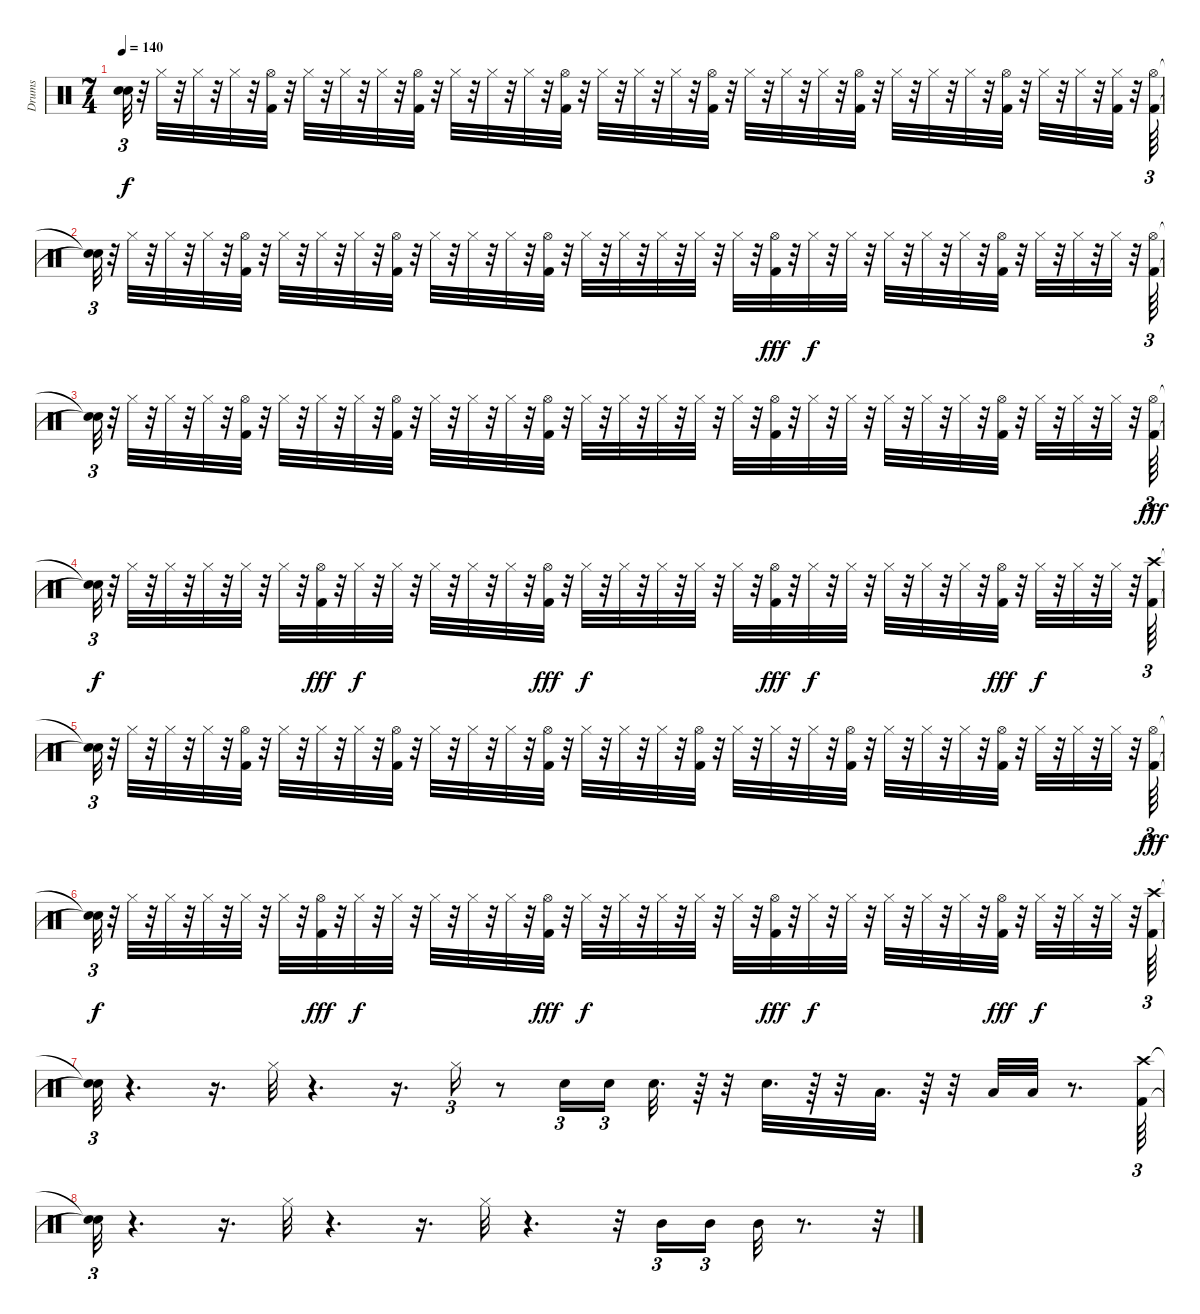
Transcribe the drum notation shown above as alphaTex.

\track ("Drums" "Drums") {instrument percussion}
\staff {score}
\articulation defaults
\ts (7 4)
\tempo 140
\clef neutral
\ks c
("Snare (hit)"{t} "Snare (hit)"{t}).32{tu (3 2) dy f} r.32 "Hi-Hat (closed)".32 r.32 "Hi-Hat (closed)".32 r.32 "Hi-Hat (closed)".32 r.32 ("Kick (hit) 2" "Hi-Hat (open)").32 r.32 "Hi-Hat (closed)".32 r.32 "Hi-Hat (closed)".32 r.32 "Hi-Hat (closed)".32 r.32 ("Hi-Hat (open)" "Kick (hit) 2").32 r.32 "Hi-Hat (closed)".32 r.32 "Hi-Hat (closed)".32 r.32 "Hi-Hat (closed)".32 r.32 ("Kick (hit) 2" "Hi-Hat (open)").32 r.32 "Hi-Hat (closed)".32 r.32 "Hi-Hat (closed)".32 r.32 "Hi-Hat (closed)".32 r.32 ("Kick (hit) 2" "Hi-Hat (open)").32 r.32 "Hi-Hat (closed)".32 r.32 "Hi-Hat (closed)".32 r.32 "Hi-Hat (closed)".32 r.32 ("Kick (hit) 2" "Hi-Hat (open)").32 r.32 "Hi-Hat (closed)".32 r.32 "Hi-Hat (closed)".32 r.32 "Hi-Hat (closed)".32 r.32 ("Kick (hit) 2" "Hi-Hat (open)").32 r.32 "Hi-Hat (closed)".32 r.32 "Hi-Hat (closed)".32 r.32 ("Kick (hit) 2" "Hi-Hat (closed)").32 r.32 ("Kick (hit) 2" "Hi-Hat (open)").64{tu (3 2)} |
("Snare (hit)"{t} "Snare (hit)"{t}).32{tu (3 2)} r.32 "Hi-Hat (closed)".32 r.32 "Hi-Hat (closed)".32 r.32 "Hi-Hat (closed)".32 r.32 ("Kick (hit) 2" "Hi-Hat (open)").32 r.32 "Hi-Hat (closed)".32 r.32 "Hi-Hat (closed)".32 r.32 "Hi-Hat (closed)".32 r.32 ("Kick (hit) 2" "Hi-Hat (open)").32 r.32 "Hi-Hat (closed)".32 r.32 "Hi-Hat (closed)".32 r.32 "Hi-Hat (closed)".32 r.32 ("Kick (hit) 2" "Hi-Hat (open)").32 r.32 "Hi-Hat (closed)".32 r.32 "Hi-Hat (closed)".32 r.32 "Hi-Hat (closed)".32 r.32 "Hi-Hat (closed)".32 r.32 "Hi-Hat (closed)".32 r.32 ("Hi-Hat (open)" "Kick (hit) 2").32{dy fff} r.32 "Hi-Hat (closed)".32{dy f} r.32 "Hi-Hat (closed)".32 r.32 "Hi-Hat (closed)".32 r.32 "Hi-Hat (closed)".32 r.32 "Hi-Hat (closed)".32 r.32 ("Kick (hit) 2" "Hi-Hat (open)").32 r.32 "Hi-Hat (closed)".32 r.32 "Hi-Hat (closed)".32 r.32 "Hi-Hat (closed)".32 r.32 ("Kick (hit) 2" "Hi-Hat (open)").64{tu (3 2)} |
("Snare (hit)"{t} "Snare (hit)"{t}).32{tu (3 2)} r.32 "Hi-Hat (closed)".32 r.32 "Hi-Hat (closed)".32 r.32 "Hi-Hat (closed)".32 r.32 ("Kick (hit) 2" "Hi-Hat (open)").32 r.32 "Hi-Hat (closed)".32 r.32 "Hi-Hat (closed)".32 r.32 "Hi-Hat (closed)".32 r.32 ("Kick (hit) 2" "Hi-Hat (open)").32 r.32 "Hi-Hat (closed)".32 r.32 "Hi-Hat (closed)".32 r.32 "Hi-Hat (closed)".32 r.32 ("Kick (hit) 2" "Hi-Hat (open)").32 r.32 "Hi-Hat (closed)".32 r.32 "Hi-Hat (closed)".32 r.32 "Hi-Hat (closed)".32 r.32 "Hi-Hat (closed)".32 r.32 "Hi-Hat (closed)".32 r.32 ("Hi-Hat (open)" "Kick (hit) 2").32 r.32 "Hi-Hat (closed)".32 r.32 "Hi-Hat (closed)".32 r.32 "Hi-Hat (closed)".32 r.32 "Hi-Hat (closed)".32 r.32 "Hi-Hat (closed)".32 r.32 ("Kick (hit) 2" "Hi-Hat (open)").32 r.32 "Hi-Hat (closed)".32 r.32 "Hi-Hat (closed)".32 r.32 "Hi-Hat (closed)".32 r.32 ("Kick (hit) 2" "Hi-Hat (open)").64{tu (3 2) dy fff} |
("Snare (hit)"{t} "Snare (hit)"{t}).32{tu (3 2) dy f} r.32 "Hi-Hat (closed)".32 r.32 "Hi-Hat (closed)".32 r.32 "Hi-Hat (closed)".32 r.32 "Hi-Hat (closed)".32 r.32 "Hi-Hat (closed)".32 r.32 ("Kick (hit) 2" "Hi-Hat (open)").32{dy fff} r.32 "Hi-Hat (closed)".32{dy f} r.32 "Hi-Hat (closed)".32 r.32 "Hi-Hat (closed)".32 r.32 "Hi-Hat (closed)".32 r.32 "Hi-Hat (closed)".32 r.32 ("Hi-Hat (open)" "Kick (hit) 2").32{dy fff} r.32 "Hi-Hat (closed)".32{dy f} r.32 "Hi-Hat (closed)".32 r.32 "Hi-Hat (closed)".32 r.32 "Hi-Hat (closed)".32 r.32 "Hi-Hat (closed)".32 r.32 ("Kick (hit) 2" "Hi-Hat (open)").32{dy fff} r.32 "Hi-Hat (closed)".32{dy f} r.32 "Hi-Hat (closed)".32 r.32 "Hi-Hat (closed)".32 r.32 "Hi-Hat (closed)".32 r.32 "Hi-Hat (closed)".32 r.32 ("Kick (hit) 2" "Hi-Hat (open)").32{dy fff} r.32 "Hi-Hat (closed)".32{dy f} r.32 "Hi-Hat (closed)".32 r.32 "Hi-Hat (closed)".32 r.32 ("Kick (hit) 2" "Crash high (hit)").64{tu (3 2)} |
("Snare (hit)"{t} "Snare (hit)"{t}).32{tu (3 2)} r.32 "Hi-Hat (closed)".32 r.32 "Hi-Hat (closed)".32 r.32 "Hi-Hat (closed)".32 r.32 ("Hi-Hat (open)" "Kick (hit) 2").32 r.32 "Hi-Hat (closed)".32 r.32 "Hi-Hat (closed)".32 r.32 "Hi-Hat (closed)".32 r.32 ("Hi-Hat (open)" "Kick (hit) 2").32 r.32 "Hi-Hat (closed)".32 r.32 "Hi-Hat (closed)".32 r.32 "Hi-Hat (closed)".32 r.32 ("Kick (hit) 2" "Hi-Hat (open)").32 r.32 "Hi-Hat (closed)".32 r.32 "Hi-Hat (closed)".32 r.32 "Hi-Hat (closed)".32 r.32 ("Kick (hit) 2" "Hi-Hat (open)").32 r.32 "Hi-Hat (closed)".32 r.32 "Hi-Hat (closed)".32 r.32 "Hi-Hat (closed)".32 r.32 ("Kick (hit) 2" "Hi-Hat (open)").32 r.32 "Hi-Hat (closed)".32 r.32 "Hi-Hat (closed)".32 r.32 "Hi-Hat (closed)".32 r.32 ("Kick (hit) 2" "Hi-Hat (open)").32 r.32 "Hi-Hat (closed)".32 r.32 "Hi-Hat (closed)".32 r.32 "Hi-Hat (closed)".32 r.32 ("Hi-Hat (open)" "Kick (hit) 2").64{tu (3 2) dy fff} |
("Snare (hit)"{t} "Snare (hit)"{t}).32{tu (3 2) dy f} r.32 "Hi-Hat (closed)".32 r.32 "Hi-Hat (closed)".32 r.32 "Hi-Hat (closed)".32 r.32 "Hi-Hat (closed)".32 r.32 "Hi-Hat (closed)".32 r.32 ("Kick (hit) 2" "Hi-Hat (open)").32{dy fff} r.32 "Hi-Hat (closed)".32{dy f} r.32 "Hi-Hat (closed)".32 r.32 "Hi-Hat (closed)".32 r.32 "Hi-Hat (closed)".32 r.32 "Hi-Hat (closed)".32 r.32 ("Hi-Hat (open)" "Kick (hit) 2").32{dy fff} r.32 "Hi-Hat (closed)".32{dy f} r.32 "Hi-Hat (closed)".32 r.32 "Hi-Hat (closed)".32 r.32 "Hi-Hat (closed)".32 r.32 "Hi-Hat (closed)".32 r.32 ("Kick (hit) 2" "Hi-Hat (open)").32{dy fff} r.32 "Hi-Hat (closed)".32{dy f} r.32 "Hi-Hat (closed)".32 r.32 "Hi-Hat (closed)".32 r.32 "Hi-Hat (closed)".32 r.32 "Hi-Hat (closed)".32 r.32 ("Hi-Hat (open)" "Kick (hit) 2").32{dy fff} r.32 "Hi-Hat (closed)".32{dy f} r.32 "Hi-Hat (closed)".32 r.32 "Hi-Hat (closed)".32 r.32 ("Kick (hit) 2" "Crash high (hit)").64{tu (3 2)} |
("Snare (hit)"{t} "Snare (hit)"{t}).32{tu (3 2)} r.4{d} r.16{d} "Hi-Hat (closed)".32 r.4{d} r.16{d} "Hi-Hat (closed)".16{tu (3 2)} r.8 "Snare (hit) 2".16{tu (3 2)} "Snare (hit) 2".16{tu (3 2) beam splitsecondary} "Snare (hit) 2".32{d} r.64 r.32 "Snare (hit) 2".32{d} r.64 r.32 "Low Tom (hit)".32{d} r.64 r.32 "Low Tom (hit)".32 "Low Tom (hit)".32 r.8{d} ("Kick (hit) 2" "Crash high (hit)").64{tu (3 2)} |
("Snare (hit)"{t} "Snare (hit)"{t}).32{tu (3 2)} r.4{d} r.16{d} "Hi-Hat (closed)".32 r.4{d} r.16{d} "Hi-Hat (closed)".32 r.4{d} r.32 "Mid Tom (hit)".16{tu (3 2)} "Mid Tom (hit)".16{tu (3 2)} "Mid Tom (hit)".32 r.8{d} r.32{tu (3 2)}
